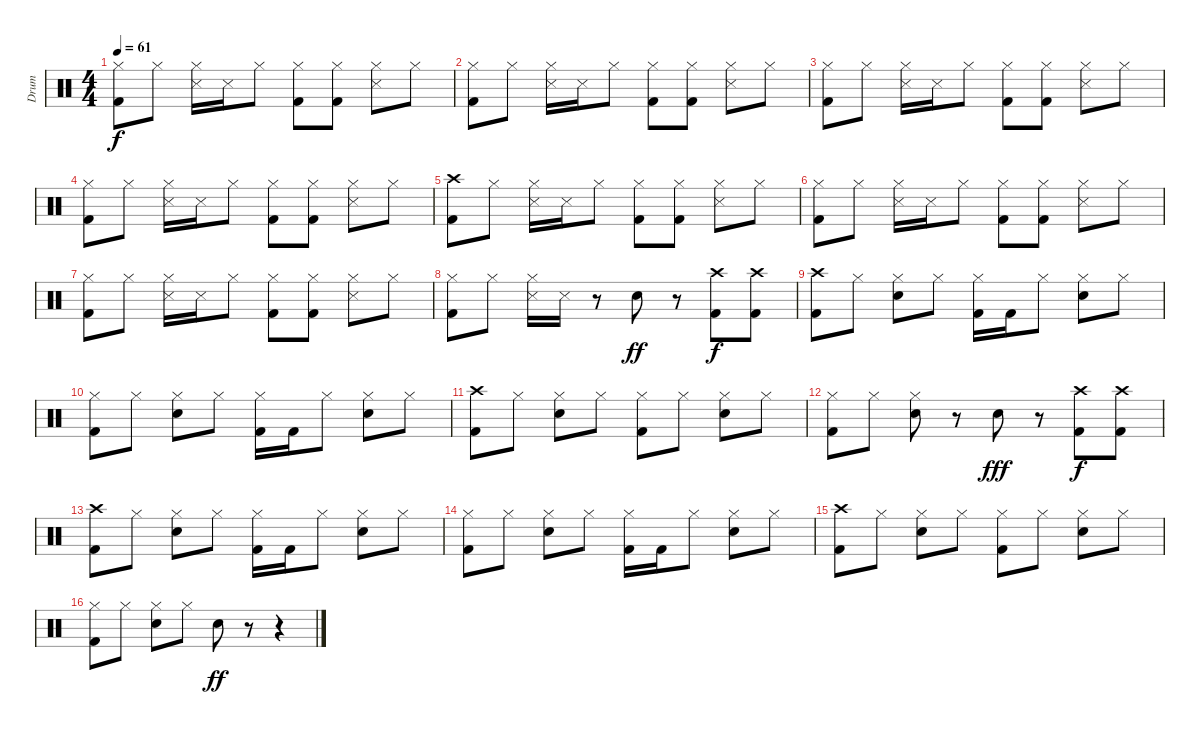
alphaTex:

\track ("Drum" "Drum") {instrument percussion}
\staff {score}
\articulation defaults
\ts (4 4)
\tempo 61
\clef neutral
\ks c
("Hi-Hat (closed)" "Kick (hit) 2").8{dy f} "Hi-Hat (closed)".8 ("Hi-Hat (closed)" "Snare (side stick) 3").16 "Snare (side stick) 3".16 "Hi-Hat (closed)".8 ("Hi-Hat (closed)" "Kick (hit) 2").8 ("Hi-Hat (closed)" "Kick (hit) 2").8 ("Hi-Hat (closed)" "Snare (side stick) 3").8 "Hi-Hat (closed)".8 |
("Hi-Hat (closed)" "Kick (hit) 2").8 "Hi-Hat (closed)".8 ("Hi-Hat (closed)" "Snare (side stick) 3").16 "Snare (side stick) 3".16 "Hi-Hat (closed)".8 ("Hi-Hat (closed)" "Kick (hit) 2").8 ("Hi-Hat (closed)" "Kick (hit) 2").8 ("Hi-Hat (closed)" "Snare (side stick) 3").8 "Hi-Hat (closed)".8 |
("Hi-Hat (closed)" "Kick (hit) 2").8 "Hi-Hat (closed)".8 ("Hi-Hat (closed)" "Snare (side stick) 3").16 "Snare (side stick) 3".16 "Hi-Hat (closed)".8 ("Hi-Hat (closed)" "Kick (hit) 2").8 ("Hi-Hat (closed)" "Kick (hit) 2").8 ("Hi-Hat (closed)" "Snare (side stick) 3").8 "Hi-Hat (closed)".8 |
("Hi-Hat (closed)" "Kick (hit) 2").8 "Hi-Hat (closed)".8 ("Hi-Hat (closed)" "Snare (side stick) 3").16 "Snare (side stick) 3".16 "Hi-Hat (closed)".8 ("Hi-Hat (closed)" "Kick (hit) 2").8 ("Hi-Hat (closed)" "Kick (hit) 2").8 ("Hi-Hat (closed)" "Snare (side stick) 3").8 "Hi-Hat (closed)".8 |
("Crash high (hit)" "Kick (hit) 2").8 "Hi-Hat (closed)".8 ("Hi-Hat (closed)" "Snare (side stick) 3").16 "Snare (side stick) 3".16 "Hi-Hat (closed)".8 ("Hi-Hat (closed)" "Kick (hit) 2").8 ("Hi-Hat (closed)" "Kick (hit) 2").8 ("Hi-Hat (closed)" "Snare (side stick) 3").8 "Hi-Hat (closed)".8 |
("Hi-Hat (closed)" "Kick (hit) 2").8 "Hi-Hat (closed)".8 ("Hi-Hat (closed)" "Snare (side stick) 3").16 "Snare (side stick) 3".16 "Hi-Hat (closed)".8 ("Hi-Hat (closed)" "Kick (hit) 2").8 ("Hi-Hat (closed)" "Kick (hit) 2").8 ("Hi-Hat (closed)" "Snare (side stick) 3").8 "Hi-Hat (closed)".8 |
("Hi-Hat (closed)" "Kick (hit) 2").8 "Hi-Hat (closed)".8 ("Hi-Hat (closed)" "Snare (side stick) 3").16 "Snare (side stick) 3".16 "Hi-Hat (closed)".8 ("Hi-Hat (closed)" "Kick (hit) 2").8 ("Hi-Hat (closed)" "Kick (hit) 2").8 ("Hi-Hat (closed)" "Snare (side stick) 3").8 "Hi-Hat (closed)".8 |
("Hi-Hat (closed)" "Kick (hit) 2").8 "Hi-Hat (closed)".8 ("Hi-Hat (closed)" "Snare (side stick) 3").16 "Snare (side stick) 3".16 r.8 "Snare (hit) 2".8{dy ff} r.8 ("Crash high (hit)" "Kick (hit) 2").8{dy f} ("Crash high (hit)" "Kick (hit) 2").8 |
("Crash high (hit)" "Kick (hit) 2").8 "Hi-Hat (closed)".8 ("Hi-Hat (closed)" "Snare (hit) 2").8 "Hi-Hat (closed)".8 ("Hi-Hat (closed)" "Kick (hit) 2").16 "Kick (hit) 2".16 "Hi-Hat (closed)".8 ("Hi-Hat (closed)" "Snare (hit) 2").8 "Hi-Hat (closed)".8 |
("Hi-Hat (closed)" "Kick (hit) 2").8 "Hi-Hat (closed)".8 ("Hi-Hat (closed)" "Snare (hit) 2").8 "Hi-Hat (closed)".8 ("Hi-Hat (closed)" "Kick (hit) 2").16 "Kick (hit) 2".16 "Hi-Hat (closed)".8 ("Hi-Hat (closed)" "Snare (hit) 2").8 "Hi-Hat (closed)".8 |
("Crash high (hit)" "Kick (hit) 2").8 "Hi-Hat (closed)".8 ("Hi-Hat (closed)" "Snare (hit) 2").8 "Hi-Hat (closed)".8 ("Hi-Hat (closed)" "Kick (hit) 2").8 "Hi-Hat (closed)".8 ("Hi-Hat (closed)" "Snare (hit) 2").8 "Hi-Hat (closed)".8 |
("Hi-Hat (closed)" "Kick (hit) 2").8 "Hi-Hat (closed)".8 ("Hi-Hat (closed)" "Snare (hit) 2").8 r.8 "Snare (hit) 2".8{dy fff} r.8 ("Crash high (hit)" "Kick (hit) 2").8{dy f} ("Crash high (hit)" "Kick (hit) 2").8 |
("Crash high (hit)" "Kick (hit) 2").8 "Hi-Hat (closed)".8 ("Hi-Hat (closed)" "Snare (hit) 2").8 "Hi-Hat (closed)".8 ("Hi-Hat (closed)" "Kick (hit) 2").16 "Kick (hit) 2".16 "Hi-Hat (closed)".8 ("Hi-Hat (closed)" "Snare (hit) 2").8 "Hi-Hat (closed)".8 |
("Hi-Hat (closed)" "Kick (hit) 2").8 "Hi-Hat (closed)".8 ("Hi-Hat (closed)" "Snare (hit) 2").8 "Hi-Hat (closed)".8 ("Hi-Hat (closed)" "Kick (hit) 2").16 "Kick (hit) 2".16 "Hi-Hat (closed)".8 ("Hi-Hat (closed)" "Snare (hit) 2").8 "Hi-Hat (closed)".8 |
("Crash high (hit)" "Kick (hit) 2").8 "Hi-Hat (closed)".8 ("Hi-Hat (closed)" "Snare (hit) 2").8 "Hi-Hat (closed)".8 ("Hi-Hat (closed)" "Kick (hit) 2").8 "Hi-Hat (closed)".8 ("Hi-Hat (closed)" "Snare (hit) 2").8 "Hi-Hat (closed)".8 |
("Hi-Hat (closed)" "Kick (hit) 2").8 "Hi-Hat (closed)".8 ("Hi-Hat (closed)" "Snare (hit) 2").8 "Hi-Hat (closed)".8 "Snare (hit) 2".8{dy ff} r.8 r.4
